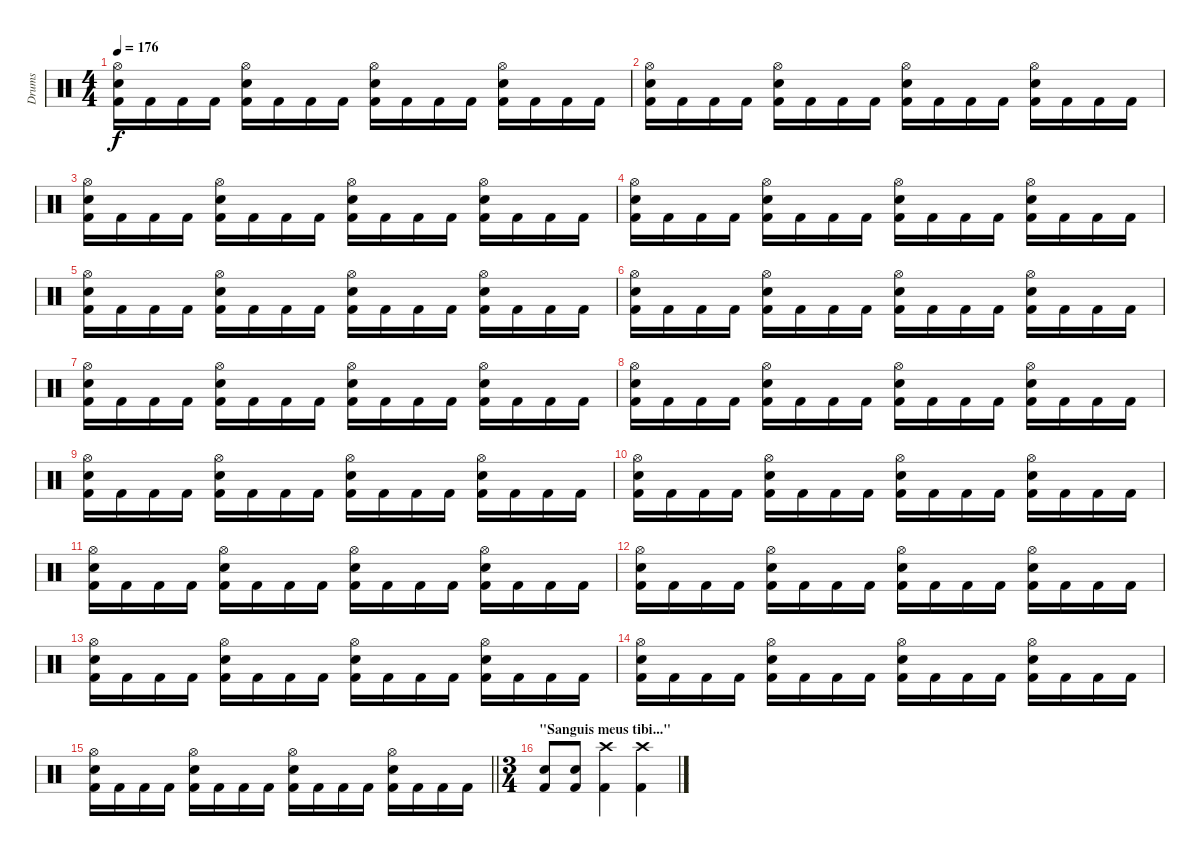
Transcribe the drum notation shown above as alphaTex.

\track ("Drums" "Drums") {instrument percussion}
\staff {score}
\articulation defaults
\ts (4 4)
\tempo 176
\clef neutral
\ks c
("Hi-Hat (open)" "Snare (hit) 2" "Kick (hit) 2").16{dy f} "Kick (hit) 2".16 "Kick (hit) 2".16 "Kick (hit) 2".16 ("Hi-Hat (open)" "Snare (hit) 2" "Kick (hit) 2").16 "Kick (hit) 2".16 "Kick (hit) 2".16 "Kick (hit) 2".16 ("Hi-Hat (open)" "Snare (hit) 2" "Kick (hit) 2").16 "Kick (hit) 2".16 "Kick (hit) 2".16 "Kick (hit) 2".16 ("Hi-Hat (open)" "Snare (hit) 2" "Kick (hit) 2").16 "Kick (hit) 2".16 "Kick (hit) 2".16 "Kick (hit) 2".16 |
("Hi-Hat (open)" "Snare (hit) 2" "Kick (hit) 2").16 "Kick (hit) 2".16 "Kick (hit) 2".16 "Kick (hit) 2".16 ("Hi-Hat (open)" "Snare (hit) 2" "Kick (hit) 2").16 "Kick (hit) 2".16 "Kick (hit) 2".16 "Kick (hit) 2".16 ("Hi-Hat (open)" "Snare (hit) 2" "Kick (hit) 2").16 "Kick (hit) 2".16 "Kick (hit) 2".16 "Kick (hit) 2".16 ("Hi-Hat (open)" "Snare (hit) 2" "Kick (hit) 2").16 "Kick (hit) 2".16 "Kick (hit) 2".16 "Kick (hit) 2".16 |
("Hi-Hat (open)" "Snare (hit) 2" "Kick (hit) 2").16 "Kick (hit) 2".16 "Kick (hit) 2".16 "Kick (hit) 2".16 ("Hi-Hat (open)" "Snare (hit) 2" "Kick (hit) 2").16 "Kick (hit) 2".16 "Kick (hit) 2".16 "Kick (hit) 2".16 ("Hi-Hat (open)" "Snare (hit) 2" "Kick (hit) 2").16 "Kick (hit) 2".16 "Kick (hit) 2".16 "Kick (hit) 2".16 ("Hi-Hat (open)" "Snare (hit) 2" "Kick (hit) 2").16 "Kick (hit) 2".16 "Kick (hit) 2".16 "Kick (hit) 2".16 |
("Hi-Hat (open)" "Snare (hit) 2" "Kick (hit) 2").16 "Kick (hit) 2".16 "Kick (hit) 2".16 "Kick (hit) 2".16 ("Hi-Hat (open)" "Snare (hit) 2" "Kick (hit) 2").16 "Kick (hit) 2".16 "Kick (hit) 2".16 "Kick (hit) 2".16 ("Hi-Hat (open)" "Snare (hit) 2" "Kick (hit) 2").16 "Kick (hit) 2".16 "Kick (hit) 2".16 "Kick (hit) 2".16 ("Hi-Hat (open)" "Snare (hit) 2" "Kick (hit) 2").16 "Kick (hit) 2".16 "Kick (hit) 2".16 "Kick (hit) 2".16 |
("Hi-Hat (open)" "Snare (hit) 2" "Kick (hit) 2").16 "Kick (hit) 2".16 "Kick (hit) 2".16 "Kick (hit) 2".16 ("Hi-Hat (open)" "Snare (hit) 2" "Kick (hit) 2").16 "Kick (hit) 2".16 "Kick (hit) 2".16 "Kick (hit) 2".16 ("Hi-Hat (open)" "Snare (hit) 2" "Kick (hit) 2").16 "Kick (hit) 2".16 "Kick (hit) 2".16 "Kick (hit) 2".16 ("Hi-Hat (open)" "Snare (hit) 2" "Kick (hit) 2").16 "Kick (hit) 2".16 "Kick (hit) 2".16 "Kick (hit) 2".16 |
("Hi-Hat (open)" "Snare (hit) 2" "Kick (hit) 2").16 "Kick (hit) 2".16 "Kick (hit) 2".16 "Kick (hit) 2".16 ("Hi-Hat (open)" "Snare (hit) 2" "Kick (hit) 2").16 "Kick (hit) 2".16 "Kick (hit) 2".16 "Kick (hit) 2".16 ("Hi-Hat (open)" "Snare (hit) 2" "Kick (hit) 2").16 "Kick (hit) 2".16 "Kick (hit) 2".16 "Kick (hit) 2".16 ("Hi-Hat (open)" "Snare (hit) 2" "Kick (hit) 2").16 "Kick (hit) 2".16 "Kick (hit) 2".16 "Kick (hit) 2".16 |
("Hi-Hat (open)" "Snare (hit) 2" "Kick (hit) 2").16 "Kick (hit) 2".16 "Kick (hit) 2".16 "Kick (hit) 2".16 ("Hi-Hat (open)" "Snare (hit) 2" "Kick (hit) 2").16 "Kick (hit) 2".16 "Kick (hit) 2".16 "Kick (hit) 2".16 ("Hi-Hat (open)" "Snare (hit) 2" "Kick (hit) 2").16 "Kick (hit) 2".16 "Kick (hit) 2".16 "Kick (hit) 2".16 ("Hi-Hat (open)" "Snare (hit) 2" "Kick (hit) 2").16 "Kick (hit) 2".16 "Kick (hit) 2".16 "Kick (hit) 2".16 |
("Hi-Hat (open)" "Snare (hit) 2" "Kick (hit) 2").16 "Kick (hit) 2".16 "Kick (hit) 2".16 "Kick (hit) 2".16 ("Hi-Hat (open)" "Snare (hit) 2" "Kick (hit) 2").16 "Kick (hit) 2".16 "Kick (hit) 2".16 "Kick (hit) 2".16 ("Hi-Hat (open)" "Snare (hit) 2" "Kick (hit) 2").16 "Kick (hit) 2".16 "Kick (hit) 2".16 "Kick (hit) 2".16 ("Hi-Hat (open)" "Snare (hit) 2" "Kick (hit) 2").16 "Kick (hit) 2".16 "Kick (hit) 2".16 "Kick (hit) 2".16 |
("Hi-Hat (open)" "Snare (hit) 2" "Kick (hit) 2").16 "Kick (hit) 2".16 "Kick (hit) 2".16 "Kick (hit) 2".16 ("Hi-Hat (open)" "Snare (hit) 2" "Kick (hit) 2").16 "Kick (hit) 2".16 "Kick (hit) 2".16 "Kick (hit) 2".16 ("Hi-Hat (open)" "Snare (hit) 2" "Kick (hit) 2").16 "Kick (hit) 2".16 "Kick (hit) 2".16 "Kick (hit) 2".16 ("Hi-Hat (open)" "Snare (hit) 2" "Kick (hit) 2").16 "Kick (hit) 2".16 "Kick (hit) 2".16 "Kick (hit) 2".16 |
("Hi-Hat (open)" "Snare (hit) 2" "Kick (hit) 2").16 "Kick (hit) 2".16 "Kick (hit) 2".16 "Kick (hit) 2".16 ("Hi-Hat (open)" "Snare (hit) 2" "Kick (hit) 2").16 "Kick (hit) 2".16 "Kick (hit) 2".16 "Kick (hit) 2".16 ("Hi-Hat (open)" "Snare (hit) 2" "Kick (hit) 2").16 "Kick (hit) 2".16 "Kick (hit) 2".16 "Kick (hit) 2".16 ("Hi-Hat (open)" "Snare (hit) 2" "Kick (hit) 2").16 "Kick (hit) 2".16 "Kick (hit) 2".16 "Kick (hit) 2".16 |
("Hi-Hat (open)" "Snare (hit) 2" "Kick (hit) 2").16 "Kick (hit) 2".16 "Kick (hit) 2".16 "Kick (hit) 2".16 ("Hi-Hat (open)" "Snare (hit) 2" "Kick (hit) 2").16 "Kick (hit) 2".16 "Kick (hit) 2".16 "Kick (hit) 2".16 ("Hi-Hat (open)" "Snare (hit) 2" "Kick (hit) 2").16 "Kick (hit) 2".16 "Kick (hit) 2".16 "Kick (hit) 2".16 ("Hi-Hat (open)" "Snare (hit) 2" "Kick (hit) 2").16 "Kick (hit) 2".16 "Kick (hit) 2".16 "Kick (hit) 2".16 |
("Hi-Hat (open)" "Snare (hit) 2" "Kick (hit) 2").16 "Kick (hit) 2".16 "Kick (hit) 2".16 "Kick (hit) 2".16 ("Hi-Hat (open)" "Snare (hit) 2" "Kick (hit) 2").16 "Kick (hit) 2".16 "Kick (hit) 2".16 "Kick (hit) 2".16 ("Hi-Hat (open)" "Snare (hit) 2" "Kick (hit) 2").16 "Kick (hit) 2".16 "Kick (hit) 2".16 "Kick (hit) 2".16 ("Hi-Hat (open)" "Snare (hit) 2" "Kick (hit) 2").16 "Kick (hit) 2".16 "Kick (hit) 2".16 "Kick (hit) 2".16 |
("Hi-Hat (open)" "Snare (hit) 2" "Kick (hit) 2").16 "Kick (hit) 2".16 "Kick (hit) 2".16 "Kick (hit) 2".16 ("Hi-Hat (open)" "Snare (hit) 2" "Kick (hit) 2").16 "Kick (hit) 2".16 "Kick (hit) 2".16 "Kick (hit) 2".16 ("Hi-Hat (open)" "Snare (hit) 2" "Kick (hit) 2").16 "Kick (hit) 2".16 "Kick (hit) 2".16 "Kick (hit) 2".16 ("Hi-Hat (open)" "Snare (hit) 2" "Kick (hit) 2").16 "Kick (hit) 2".16 "Kick (hit) 2".16 "Kick (hit) 2".16 |
("Hi-Hat (open)" "Snare (hit) 2" "Kick (hit) 2").16 "Kick (hit) 2".16 "Kick (hit) 2".16 "Kick (hit) 2".16 ("Hi-Hat (open)" "Snare (hit) 2" "Kick (hit) 2").16 "Kick (hit) 2".16 "Kick (hit) 2".16 "Kick (hit) 2".16 ("Hi-Hat (open)" "Snare (hit) 2" "Kick (hit) 2").16 "Kick (hit) 2".16 "Kick (hit) 2".16 "Kick (hit) 2".16 ("Hi-Hat (open)" "Snare (hit) 2" "Kick (hit) 2").16 "Kick (hit) 2".16 "Kick (hit) 2".16 "Kick (hit) 2".16 |
\barLineRight lightlight
("Hi-Hat (open)" "Snare (hit) 2" "Kick (hit) 2").16 "Kick (hit) 2".16 "Kick (hit) 2".16 "Kick (hit) 2".16 ("Hi-Hat (open)" "Snare (hit) 2" "Kick (hit) 2").16 "Kick (hit) 2".16 "Kick (hit) 2".16 "Kick (hit) 2".16 ("Hi-Hat (open)" "Snare (hit) 2" "Kick (hit) 2").16 "Kick (hit) 2".16 "Kick (hit) 2".16 "Kick (hit) 2".16 ("Hi-Hat (open)" "Snare (hit) 2" "Kick (hit) 2").16 "Kick (hit) 2".16 "Kick (hit) 2".16 "Kick (hit) 2".16 |
\ts (3 4)
\section ("" "\"Sanguis meus tibi...\"")
("Snare (hit) 2" "Kick (hit) 2").8 ("Snare (hit) 2" "Kick (hit) 2").8 ("Crash high (hit)" "Kick (hit) 2").4 ("Crash high (hit)" "Kick (hit) 2").4
